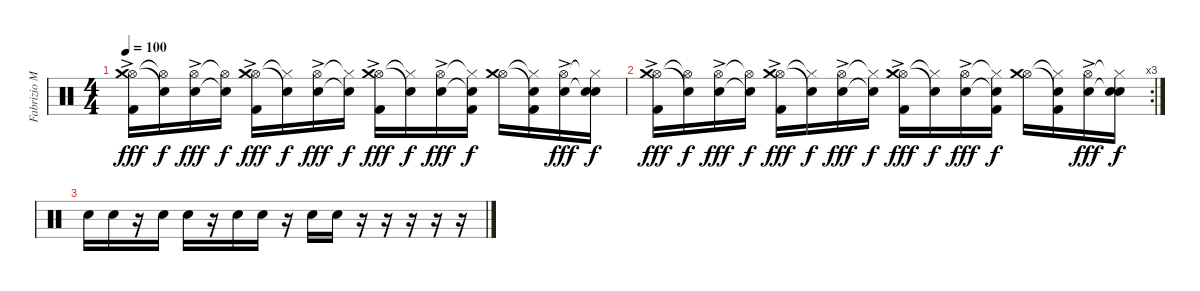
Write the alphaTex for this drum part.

\track ("Fabrizio Morreti (drums)" "Fabrizio M") {instrument percussion}
\staff {score}
\articulation defaults
\ts (4 4)
\tempo 100
\clef neutral
\ks c
("Hi-Hat (open)" "Crash medium (hit)" "Kick (hit) 2"{ac}).16{dy fff} ("Hi-Hat (open)"{t} "Snare (hit)"{t}).16{dy f} ("Hi-Hat (open)" "Electric Snare (hit)"{ac}).16{dy fff} ("Hi-Hat (open)"{t} "Snare (hit)"{t}).16{dy f} ("Hi-Hat (open)" "Crash medium (hit)" "Kick (hit) 2"{ac}).16{dy fff} ("Hi-Hat (closed)"{t} "Snare (hit)"{t}).16{dy f} ("Hi-Hat (open)" "Electric Snare (hit)"{ac}).16{dy fff} ("Hi-Hat (closed)"{t} "Snare (hit)"{t}).16{dy f} ("Hi-Hat (open)" "Crash medium (hit)" "Kick (hit) 2"{ac}).16{dy fff} ("Hi-Hat (closed)"{t} "Snare (hit)"{t}).16{dy f} ("Hi-Hat (open)" "Electric Snare (hit)"{ac}).16{dy fff} ("Hi-Hat (closed)"{t} "Snare (hit)"{t} "Kick (hit) 2").16{dy f} ("Hi-Hat (open)" "Crash medium (hit)").16 ("Hi-Hat (closed)"{t} "Snare (hit)"{t} "Kick (hit) 2").16 ("Hi-Hat (open)" "Electric Snare (hit)"{ac}).16{dy fff} ("Hi-Hat (closed)"{t} "Snare (hit)"{t} "Electric Snare (hit)").16{dy f} |
\rc 3
("Hi-Hat (open)" "Crash medium (hit)" "Kick (hit) 2"{ac}).16{dy fff} ("Hi-Hat (open)"{t} "Snare (hit)"{t}).16{dy f} ("Hi-Hat (open)" "Electric Snare (hit)"{ac}).16{dy fff} ("Hi-Hat (open)"{t} "Snare (hit)"{t}).16{dy f} ("Hi-Hat (open)" "Crash medium (hit)" "Kick (hit) 2"{ac}).16{dy fff} ("Hi-Hat (closed)"{t} "Snare (hit)"{t}).16{dy f} ("Hi-Hat (open)" "Electric Snare (hit)"{ac}).16{dy fff} ("Hi-Hat (closed)"{t} "Snare (hit)"{t}).16{dy f} ("Hi-Hat (open)" "Crash medium (hit)" "Kick (hit) 2"{ac}).16{dy fff} ("Hi-Hat (closed)"{t} "Snare (hit)"{t}).16{dy f} ("Hi-Hat (open)" "Electric Snare (hit)"{ac}).16{dy fff} ("Hi-Hat (closed)"{t} "Snare (hit)"{t} "Kick (hit) 2").16{dy f} ("Hi-Hat (open)" "Crash medium (hit)").16 ("Hi-Hat (closed)"{t} "Snare (hit)"{t} "Kick (hit) 2").16 ("Hi-Hat (open)" "Electric Snare (hit)"{ac}).16{dy fff} ("Hi-Hat (closed)"{t} "Snare (hit)"{t} "Electric Snare (hit)").16{dy f} |
"Electric Snare (hit)".16 "Electric Snare (hit)".16 r.16 "Electric Snare (hit)".16 "Electric Snare (hit)".16 r.16 "Electric Snare (hit)".16 "Electric Snare (hit)".16 r.16 "Electric Snare (hit)".16 "Electric Snare (hit)".16 r.16 r.16 r.16 r.16 r.16
